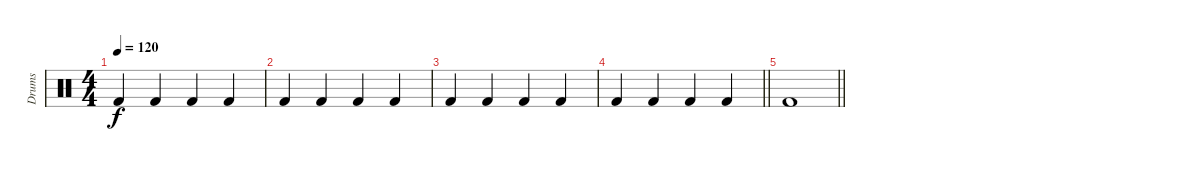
\track ("Drums" "Drums") {instrument percussion}
\staff {score}
\articulation defaults
\ts (4 4)
\tempo 120
\clef neutral
\ks c "Kick (hit) 2".4{dy f} "Kick (hit) 2".4 "Kick (hit) 2".4 "Kick (hit) 2".4
|
"Kick (hit) 2".4 "Kick (hit) 2".4 "Kick (hit) 2".4 "Kick (hit) 2".4 |
"Kick (hit) 2".4 "Kick (hit) 2".4 "Kick (hit) 2".4 "Kick (hit) 2".4 |
\barLineRight lightlight "Kick (hit) 2".4 "Kick (hit) 2".4 "Kick (hit) 2".4 "Kick (hit) 2".4
|
\barLineRight lightlight "Kick (hit) 2".1
